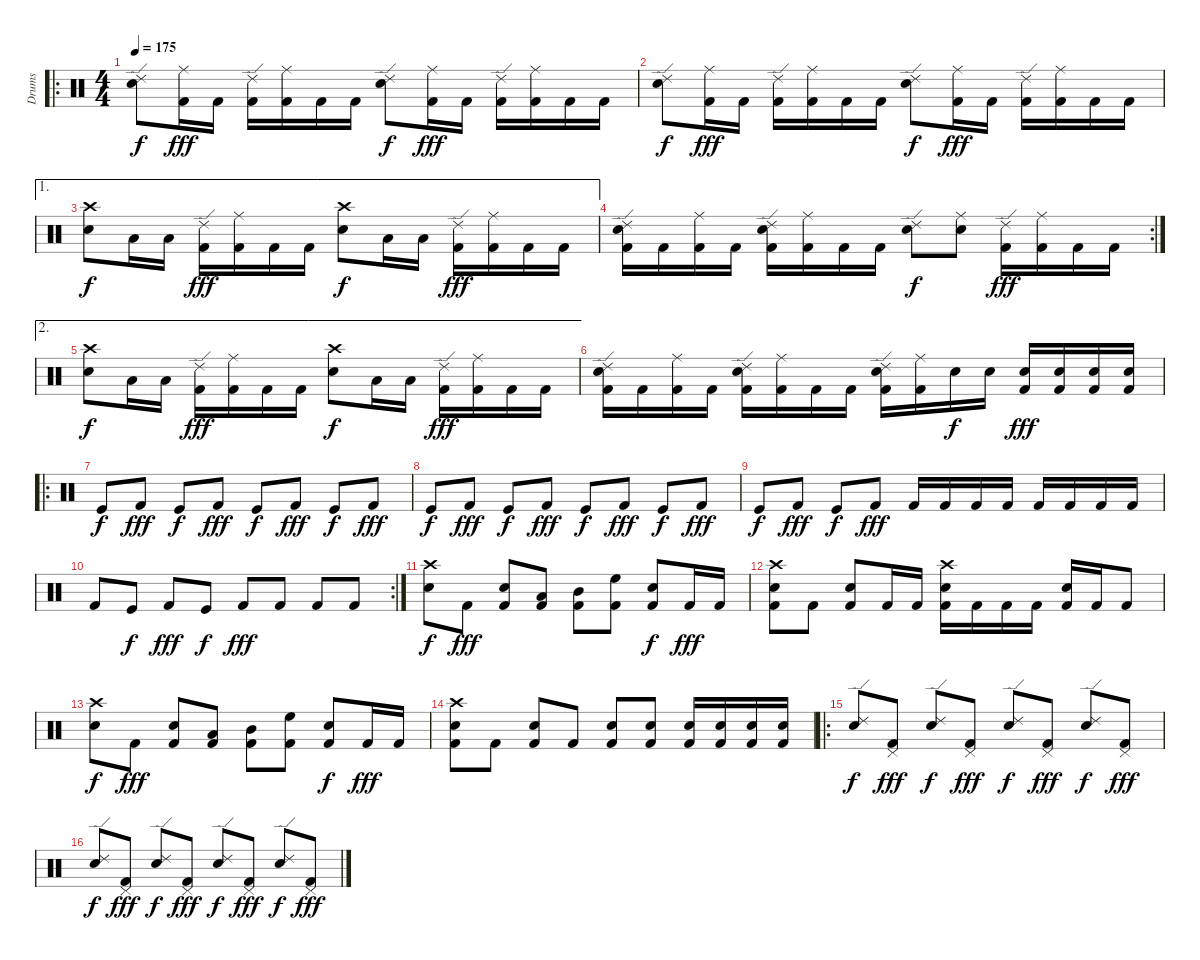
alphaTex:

\track ("Drums" "Drums") {instrument percussion}
\staff {score}
\articulation defaults
\ro
\ts (4 4)
\tempo 175
\clef neutral
\ks c
("Ride (edge) 2" "Electric Snare (hit)").8{dy f} ("Ride (middle)" "Kick (hit) 2").16{dy fff} "Kick (hit) 2".16 ("Ride (edge) 2" "Kick (hit) 2").16 ("Ride (middle)" "Kick (hit) 2").16 "Kick (hit) 2".16 "Kick (hit) 2".16 ("Ride (edge) 2" "Electric Snare (hit)").8{dy f} ("Ride (middle)" "Kick (hit) 2").16{dy fff} "Kick (hit) 2".16 ("Ride (edge) 2" "Kick (hit) 2").16 ("Ride (middle)" "Kick (hit) 2").16 "Kick (hit) 2".16 "Kick (hit) 2".16 |
("Ride (edge) 2" "Electric Snare (hit)").8{dy f} ("Ride (middle)" "Kick (hit) 2").16{dy fff} "Kick (hit) 2".16 ("Ride (edge) 2" "Kick (hit) 2").16 ("Ride (middle)" "Kick (hit) 2").16 "Kick (hit) 2".16 "Kick (hit) 2".16 ("Ride (edge) 2" "Electric Snare (hit)").8{dy f} ("Ride (middle)" "Kick (hit) 2").16{dy fff} "Kick (hit) 2".16 ("Ride (edge) 2" "Kick (hit) 2").16 ("Ride (middle)" "Kick (hit) 2").16 "Kick (hit) 2".16 "Kick (hit) 2".16 |
\ae 1
("Crash high (hit)" "Electric Snare (hit)").8{dy f} "Low Tom (hit)".16 "Low Tom (hit)".16 ("Ride (edge) 2" "Kick (hit) 2").16{dy fff} ("Ride (middle)" "Kick (hit) 2").16 "Kick (hit) 2".16 "Kick (hit) 2".16 ("Crash high (hit)" "Electric Snare (hit)").8{dy f} "Low Tom (hit)".16 "Low Tom (hit)".16 ("Ride (edge) 2" "Kick (hit) 2").16{dy fff} ("Ride (middle)" "Kick (hit) 2").16 "Kick (hit) 2".16 "Kick (hit) 2".16 |
\rc 2
("Ride (edge) 2" "Electric Snare (hit)" "Kick (hit) 2").16 "Kick (hit) 2".16 ("Ride (middle)" "Kick (hit) 2").16 "Kick (hit) 2".16 ("Ride (edge) 2" "Electric Snare (hit)" "Kick (hit) 2").16 ("Ride (middle)" "Kick (hit) 2").16 "Kick (hit) 2".16 "Kick (hit) 2".16 ("Ride (edge) 2" "Electric Snare (hit)").8{dy f} ("Ride (middle)" "Electric Snare (hit)").8 ("Ride (edge) 2" "Kick (hit) 2").16{dy fff} ("Ride (middle)" "Kick (hit) 2").16 "Kick (hit) 2".16 "Kick (hit) 2".16 |
\ae 2
("Crash high (hit)" "Electric Snare (hit)").8{dy f} "Low Tom (hit)".16 "Low Tom (hit)".16 ("Ride (edge) 2" "Kick (hit) 2").16{dy fff} ("Ride (middle)" "Kick (hit) 2").16 "Kick (hit) 2".16 "Kick (hit) 2".16 ("Crash high (hit)" "Electric Snare (hit)").8{dy f} "Low Tom (hit)".16 "Low Tom (hit)".16 ("Ride (edge) 2" "Kick (hit) 2").16{dy fff} ("Ride (middle)" "Kick (hit) 2").16 "Kick (hit) 2".16 "Kick (hit) 2".16 |
("Ride (edge) 2" "Electric Snare (hit)" "Kick (hit) 2").16 "Kick (hit) 2".16 ("Ride (middle)" "Kick (hit) 2").16 "Kick (hit) 2".16 ("Ride (edge) 2" "Electric Snare (hit)" "Kick (hit) 2").16 ("Ride (middle)" "Kick (hit) 2").16 "Kick (hit) 2".16 "Kick (hit) 2".16 ("Ride (edge) 2" "Electric Snare (hit)" "Kick (hit) 2").16 ("Ride (middle)" "Kick (hit) 2").16 "Electric Snare (hit)".16{dy f} "Electric Snare (hit)".16 ("Electric Snare (hit)" "Kick (hit) 2").16{dy fff} ("Electric Snare (hit)" "Kick (hit) 2").16 ("Electric Snare (hit)" "Kick (hit) 2").16 ("Electric Snare (hit)" "Kick (hit) 2").16 |
\ro "Kick (hit)"{x}.8{dy f} "Kick (hit) 2".8{dy fff} "Kick (hit)"{x}.8{dy f} "Kick (hit) 2".8{dy fff} "Kick (hit)"{x}.8{dy f} "Kick (hit) 2".8{dy fff} "Kick (hit)"{x}.8{dy f} "Kick (hit) 2".8{dy fff}
|
"Kick (hit)"{x}.8{dy f} "Kick (hit) 2".8{dy fff} "Kick (hit)"{x}.8{dy f} "Kick (hit) 2".8{dy fff} "Kick (hit)"{x}.8{dy f} "Kick (hit) 2".8{dy fff} "Kick (hit)"{x}.8{dy f} "Kick (hit) 2".8{dy fff} |
"Kick (hit)"{x}.8{dy f} "Kick (hit) 2".8{dy fff} "Kick (hit)"{x}.8{dy f} "Kick (hit) 2".8{dy fff} "Kick (hit) 2".16 "Kick (hit) 2".16 "Kick (hit) 2".16 "Kick (hit) 2".16 "Kick (hit) 2".16 "Kick (hit) 2".16 "Kick (hit) 2".16 "Kick (hit) 2".16 |
\rc 2 "Kick (hit) 2".8 "Kick (hit)"{x}.8{dy f} "Kick (hit) 2".8{dy fff} "Kick (hit)"{x}.8{dy f} "Kick (hit) 2".8{dy fff} "Kick (hit) 2".8 "Kick (hit) 2".8 "Kick (hit) 2".8
|
("Crash high (hit)" "Electric Snare (hit)").8{dy f} "Kick (hit) 2".8{dy fff} ("Electric Snare (hit)" "Kick (hit) 2").8 ("Low Tom (hit)" "Kick (hit) 2").8 ("Mid Tom (hit)" "Kick (hit) 2").8 ("High Floor Tom (hit)" "Kick (hit) 2").8 ("Electric Snare (hit)" "Kick (hit) 2").8{dy f} "Kick (hit) 2".16{dy fff} "Kick (hit) 2".16 |
("Crash high (hit)" "Electric Snare (hit)" "Kick (hit) 2").8 "Kick (hit) 2".8 ("Electric Snare (hit)" "Kick (hit) 2").8 "Kick (hit) 2".16 "Kick (hit) 2".16 ("Crash high (hit)" "Electric Snare (hit)" "Kick (hit) 2").16 "Kick (hit) 2".16 "Kick (hit) 2".16 "Kick (hit) 2".16 ("Electric Snare (hit)" "Kick (hit) 2").16 "Kick (hit) 2".16 "Kick (hit) 2".8 |
("Crash high (hit)" "Electric Snare (hit)").8{dy f} "Kick (hit) 2".8{dy fff} ("Electric Snare (hit)" "Kick (hit) 2").8 ("Low Tom (hit)" "Kick (hit) 2").8 ("Mid Tom (hit)" "Kick (hit) 2").8 ("High Floor Tom (hit)" "Kick (hit) 2").8 ("Electric Snare (hit)" "Kick (hit) 2").8{dy f} "Kick (hit) 2".16{dy fff} "Kick (hit) 2".16 |
("Crash high (hit)" "Electric Snare (hit)" "Kick (hit) 2").8 "Kick (hit) 2".8 ("Electric Snare (hit)" "Kick (hit) 2").8 "Kick (hit) 2".8 ("Electric Snare (hit)" "Kick (hit) 2").8 ("Electric Snare (hit)" "Kick (hit) 2").8 ("Electric Snare (hit)" "Kick (hit) 2").16 ("Electric Snare (hit)" "Kick (hit) 2").16 ("Electric Snare (hit)" "Kick (hit) 2").16 ("Electric Snare (hit)" "Kick (hit) 2").16 |
\ro
("Ride (edge) 2" "Electric Snare (hit)").8{dy f} ("Pedal Hi-Hat (hit)" "Kick (hit) 2").8{dy fff} ("Ride (edge) 2" "Electric Snare (hit)").8{dy f} ("Pedal Hi-Hat (hit)" "Kick (hit) 2").8{dy fff} ("Ride (edge) 2" "Electric Snare (hit)").8{dy f} ("Pedal Hi-Hat (hit)" "Kick (hit) 2").8{dy fff} ("Ride (edge) 2" "Electric Snare (hit)").8{dy f} ("Pedal Hi-Hat (hit)" "Kick (hit) 2").8{dy fff} |
("Ride (edge) 2" "Electric Snare (hit)").8{dy f} ("Pedal Hi-Hat (hit)" "Kick (hit) 2").8{dy fff} ("Ride (edge) 2" "Electric Snare (hit)").8{dy f} ("Pedal Hi-Hat (hit)" "Kick (hit) 2").8{dy fff} ("Ride (edge) 2" "Electric Snare (hit)").8{dy f} ("Pedal Hi-Hat (hit)" "Kick (hit) 2").8{dy fff} ("Ride (edge) 2" "Electric Snare (hit)").8{dy f} ("Pedal Hi-Hat (hit)" "Kick (hit) 2").8{dy fff}
